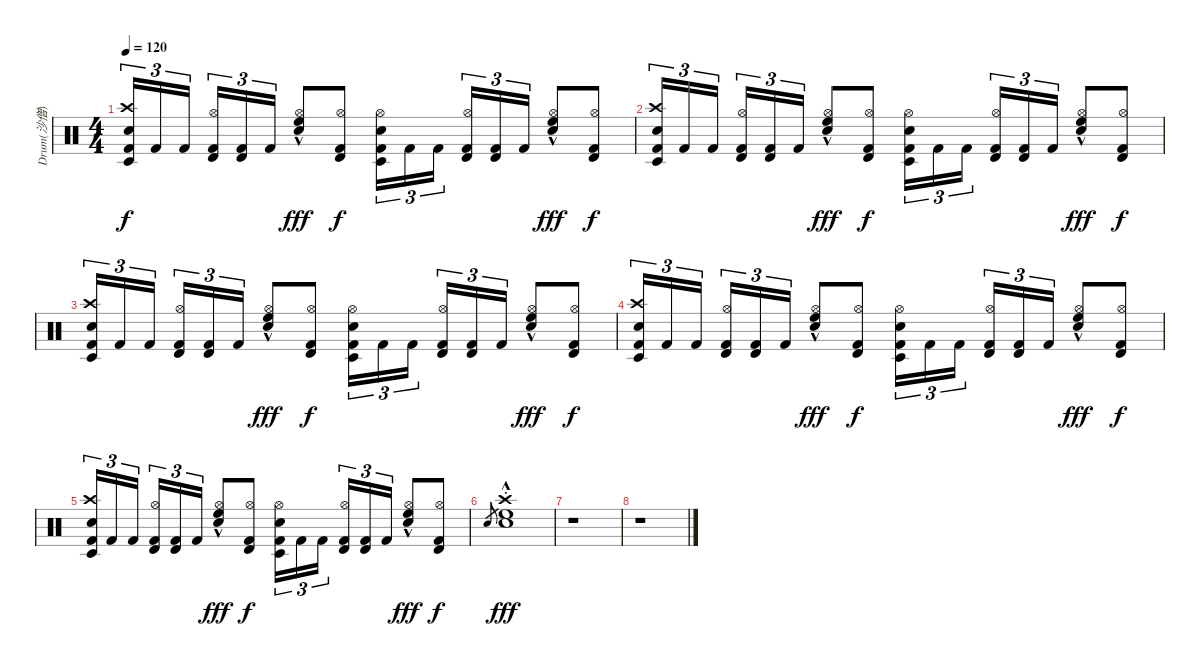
\track ("Drum(沙僧)" "Drum(沙僧)") {instrument percussion}
\staff {score}
\articulation defaults
\ts (4 4)
\tempo 120
\clef neutral
\ks c
("Kick (hit) 2" "Snare (hit) 2" "Crash high (hit)" "Timbale low (hit)").16{tu (3 2) dy f} "Kick (hit) 2".16{tu (3 2)} "Kick (hit) 2".16{tu (3 2) beam splitsecondary} ("Kick (hit) 2" "Hi-Hat (open)" "Timbale high (hit)").16{tu (3 2)} ("Kick (hit) 2" "Timbale high (hit)").16{tu (3 2)} "Kick (hit) 2".16{tu (3 2)} ("Snare (hit) 2" "Hi-Hat (open)" "High Floor Tom (hit)"{hac}).8{dy fff} ("Kick (hit) 2" "Hi-Hat (open)" "Timbale high (hit)").8{dy f} ("Kick (hit) 2" "Snare (hit) 2" "Hi-Hat (open)" "Timbale low (hit)").16{tu (3 2)} "Kick (hit) 2".16{tu (3 2)} "Kick (hit) 2".16{tu (3 2) beam splitsecondary} ("Kick (hit) 2" "Hi-Hat (open)" "Timbale high (hit)").16{tu (3 2)} ("Kick (hit) 2" "Timbale high (hit)").16{tu (3 2)} "Kick (hit) 2".16{tu (3 2)} ("Snare (hit) 2" "Hi-Hat (open)" "High Floor Tom (hit)"{hac}).8{dy fff} ("Kick (hit) 2" "Hi-Hat (open)" "Timbale high (hit)").8{dy f} |
("Kick (hit) 2" "Snare (hit) 2" "Crash high (hit)" "Timbale low (hit)").16{tu (3 2)} "Kick (hit) 2".16{tu (3 2)} "Kick (hit) 2".16{tu (3 2) beam splitsecondary} ("Kick (hit) 2" "Hi-Hat (open)" "Timbale high (hit)").16{tu (3 2)} ("Kick (hit) 2" "Timbale high (hit)").16{tu (3 2)} "Kick (hit) 2".16{tu (3 2)} ("Snare (hit) 2" "Hi-Hat (open)" "High Floor Tom (hit)"{hac}).8{dy fff} ("Kick (hit) 2" "Hi-Hat (open)" "Timbale high (hit)").8{dy f} ("Kick (hit) 2" "Snare (hit) 2" "Hi-Hat (open)" "Timbale low (hit)").16{tu (3 2)} "Kick (hit) 2".16{tu (3 2)} "Kick (hit) 2".16{tu (3 2) beam splitsecondary} ("Kick (hit) 2" "Hi-Hat (open)" "Timbale high (hit)").16{tu (3 2)} ("Kick (hit) 2" "Timbale high (hit)").16{tu (3 2)} "Kick (hit) 2".16{tu (3 2)} ("Snare (hit) 2" "Hi-Hat (open)" "High Floor Tom (hit)"{hac}).8{dy fff} ("Kick (hit) 2" "Hi-Hat (open)" "Timbale high (hit)").8{dy f} |
("Kick (hit) 2" "Snare (hit) 2" "Crash high (hit)" "Timbale low (hit)").16{tu (3 2)} "Kick (hit) 2".16{tu (3 2)} "Kick (hit) 2".16{tu (3 2) beam splitsecondary} ("Kick (hit) 2" "Hi-Hat (open)" "Timbale high (hit)").16{tu (3 2)} ("Kick (hit) 2" "Timbale high (hit)").16{tu (3 2)} "Kick (hit) 2".16{tu (3 2)} ("Snare (hit) 2" "Hi-Hat (open)" "High Floor Tom (hit)"{hac}).8{dy fff} ("Kick (hit) 2" "Hi-Hat (open)" "Timbale high (hit)").8{dy f} ("Kick (hit) 2" "Snare (hit) 2" "Hi-Hat (open)" "Timbale low (hit)").16{tu (3 2)} "Kick (hit) 2".16{tu (3 2)} "Kick (hit) 2".16{tu (3 2) beam splitsecondary} ("Kick (hit) 2" "Hi-Hat (open)" "Timbale high (hit)").16{tu (3 2)} ("Kick (hit) 2" "Timbale high (hit)").16{tu (3 2)} "Kick (hit) 2".16{tu (3 2)} ("Snare (hit) 2" "Hi-Hat (open)" "High Floor Tom (hit)"{hac}).8{dy fff} ("Kick (hit) 2" "Hi-Hat (open)" "Timbale high (hit)").8{dy f} |
("Kick (hit) 2" "Snare (hit) 2" "Crash high (hit)" "Timbale low (hit)").16{tu (3 2)} "Kick (hit) 2".16{tu (3 2)} "Kick (hit) 2".16{tu (3 2) beam splitsecondary} ("Kick (hit) 2" "Hi-Hat (open)" "Timbale high (hit)").16{tu (3 2)} ("Kick (hit) 2" "Timbale high (hit)").16{tu (3 2)} "Kick (hit) 2".16{tu (3 2)} ("Snare (hit) 2" "Hi-Hat (open)" "High Floor Tom (hit)"{hac}).8{dy fff} ("Kick (hit) 2" "Hi-Hat (open)" "Timbale high (hit)").8{dy f} ("Kick (hit) 2" "Snare (hit) 2" "Hi-Hat (open)" "Timbale low (hit)").16{tu (3 2)} "Kick (hit) 2".16{tu (3 2)} "Kick (hit) 2".16{tu (3 2) beam splitsecondary} ("Kick (hit) 2" "Hi-Hat (open)" "Timbale high (hit)").16{tu (3 2)} ("Kick (hit) 2" "Timbale high (hit)").16{tu (3 2)} "Kick (hit) 2".16{tu (3 2)} ("Snare (hit) 2" "Hi-Hat (open)" "High Floor Tom (hit)"{hac}).8{dy fff} ("Kick (hit) 2" "Hi-Hat (open)" "Timbale high (hit)").8{dy f} |
("Kick (hit) 2" "Snare (hit) 2" "Crash high (hit)" "Timbale low (hit)").16{tu (3 2)} "Kick (hit) 2".16{tu (3 2)} "Kick (hit) 2".16{tu (3 2) beam splitsecondary} ("Kick (hit) 2" "Hi-Hat (open)" "Timbale high (hit)").16{tu (3 2)} ("Kick (hit) 2" "Timbale high (hit)").16{tu (3 2)} "Kick (hit) 2".16{tu (3 2)} ("Snare (hit) 2" "Hi-Hat (open)" "High Floor Tom (hit)"{hac}).8{dy fff} ("Kick (hit) 2" "Hi-Hat (open)" "Timbale high (hit)").8{dy f} ("Kick (hit) 2" "Snare (hit) 2" "Hi-Hat (open)" "Timbale low (hit)").16{tu (3 2)} "Kick (hit) 2".16{tu (3 2)} "Kick (hit) 2".16{tu (3 2) beam splitsecondary} ("Kick (hit) 2" "Hi-Hat (open)" "Timbale high (hit)").16{tu (3 2)} ("Kick (hit) 2" "Timbale high (hit)").16{tu (3 2)} "Kick (hit) 2".16{tu (3 2)} ("Snare (hit) 2" "Hi-Hat (open)" "High Floor Tom (hit)"{hac}).8{dy fff} ("Kick (hit) 2" "Hi-Hat (open)" "Timbale high (hit)").8{dy f} |
"Snare (hit) 2".8{gr} ("Crash high (hit)" "Snare (hit) 2" "High Floor Tom (hit)"{hac st}).1{dy fff} |
r.1 |
r.1
